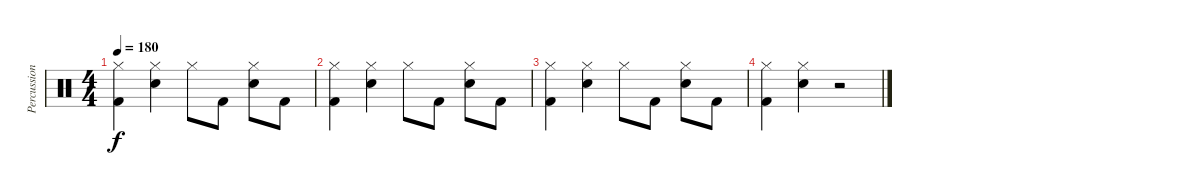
\track ("Percussion" "Percussion") {instrument percussion}
\staff {score}
\articulation defaults
\ts (4 4)
\tempo 180
\clef neutral
\ks c
("Hi-Hat (closed)" "Kick (hit) 2").4{dy f} ("Hi-Hat (closed)" "Snare (hit) 2").4 "Hi-Hat (closed)".8 "Kick (hit) 2".8 ("Hi-Hat (closed)" "Snare (hit) 2").8 "Kick (hit) 2".8 |
("Hi-Hat (closed)" "Kick (hit) 2").4 ("Hi-Hat (closed)" "Snare (hit) 2").4 "Hi-Hat (closed)".8 "Kick (hit) 2".8 ("Hi-Hat (closed)" "Snare (hit) 2").8 "Kick (hit) 2".8 |
("Hi-Hat (closed)" "Kick (hit) 2").4 ("Hi-Hat (closed)" "Snare (hit) 2").4 "Hi-Hat (closed)".8 "Kick (hit) 2".8 ("Hi-Hat (closed)" "Snare (hit) 2").8 "Kick (hit) 2".8 |
("Hi-Hat (closed)" "Kick (hit) 2").4 ("Hi-Hat (closed)" "Snare (hit) 2").4 r.2
